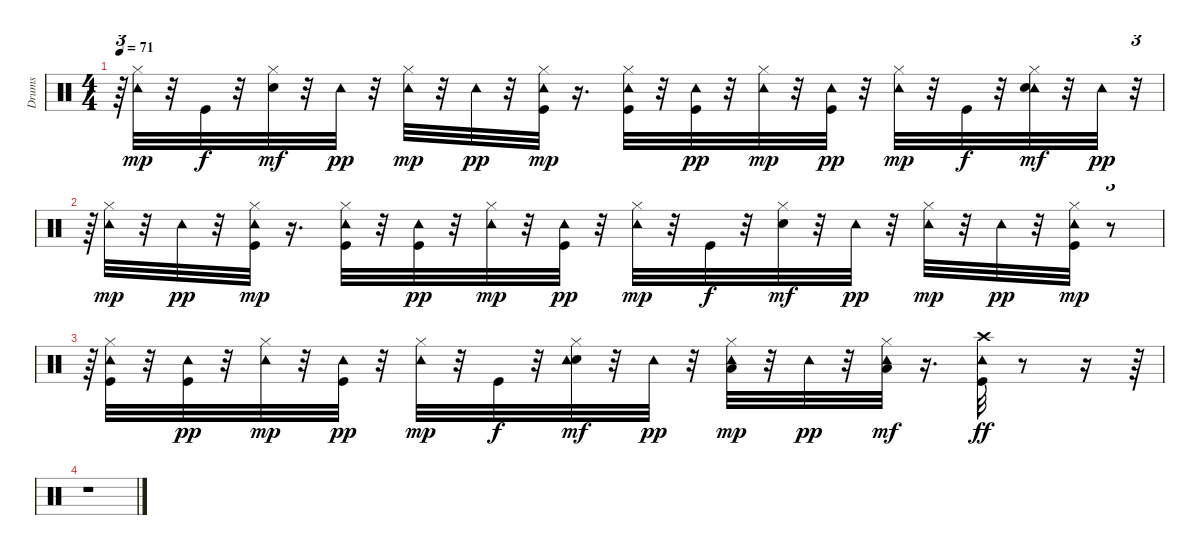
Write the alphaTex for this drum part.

\track ("Drums" "Drums") {instrument percussion}
\staff {score}
\articulation defaults
\ts (4 4)
\tempo 71
\clef neutral
\ks c
r.64{tu (3 2) dy pp} ("Tambourine (hit)" "Hi-Hat (closed)").32{dy mp} r.32 "Kick (hit)".32{dy f} r.32 ("Hi-Hat (closed)" "Snare (hit) 2").32{dy mf} r.32 "Tambourine (hit)".32{dy pp} r.32 ("Tambourine (hit)" "Hi-Hat (closed)").32{dy mp} r.32 "Tambourine (hit)".32{dy pp} r.32 ("Kick (hit)" "Tambourine (hit)" "Hi-Hat (closed)").32{dy mp} r.16{d} ("Tambourine (hit)" "Kick (hit)" "Hi-Hat (closed)").32 r.32 ("Tambourine (hit)" "Kick (hit)").32{dy pp} r.32 ("Hi-Hat (closed)" "Tambourine (hit)").32{dy mp} r.32 ("Kick (hit)" "Tambourine (hit)").32{dy pp} r.32 ("Tambourine (hit)" "Hi-Hat (closed)").32{dy mp} r.32 "Kick (hit)".32{dy f} r.32 ("Tambourine (hit)" "Hi-Hat (closed)" "Snare (hit) 2").32{dy mf} r.32 "Tambourine (hit)".32{dy pp} r.32{tu (3 2)} |
r.64{tu (3 2)} ("Hi-Hat (closed)" "Tambourine (hit)").32{dy mp} r.32 "Tambourine (hit)".32{dy pp} r.32 ("Tambourine (hit)" "Kick (hit)" "Hi-Hat (closed)").32{dy mp} r.16{d} ("Hi-Hat (closed)" "Kick (hit)" "Tambourine (hit)").32 r.32 ("Tambourine (hit)" "Kick (hit)").32{dy pp} r.32 ("Tambourine (hit)" "Hi-Hat (closed)").32{dy mp} r.32 ("Tambourine (hit)" "Kick (hit)").32{dy pp} r.32 ("Tambourine (hit)" "Hi-Hat (closed)").32{dy mp} r.32 "Kick (hit)".32{dy f} r.32 ("Hi-Hat (closed)" "Snare (hit) 2").32{dy mf} r.32 "Tambourine (hit)".32{dy pp} r.32 ("Hi-Hat (closed)" "Tambourine (hit)").32{dy mp} r.32 "Tambourine (hit)".32{dy pp} r.32 ("Tambourine (hit)" "Kick (hit)" "Hi-Hat (closed)").32{dy mp} r.8{tu (3 2)} |
r.64{tu (3 2)} ("Tambourine (hit)" "Kick (hit)" "Hi-Hat (closed)").32 r.32 ("Tambourine (hit)" "Kick (hit)").32{dy pp} r.32 ("Tambourine (hit)" "Hi-Hat (closed)").32{dy mp} r.32 ("Tambourine (hit)" "Kick (hit)").32{dy pp} r.32 ("Hi-Hat (closed)" "Tambourine (hit)").32{dy mp} r.32 "Kick (hit)".32{dy f} r.32 ("Snare (hit) 2" "Tambourine (hit)" "Hi-Hat (closed)").32{dy mf} r.32 "Tambourine (hit)".32{dy pp} r.32 ("Low Tom (hit)" "Hi-Hat (closed)" "Tambourine (hit)").32{dy mp} r.32 "Tambourine (hit)".32{dy pp} r.32 ("Hi-Hat (closed)" "Tambourine (hit)" "Low Floor Tom (hit)").32{dy mf} r.16{d} ("Tambourine (hit)" "Crash high (hit)" "Kick (hit)").32{dy ff} r.8 r.16 r.64 |
r.1
